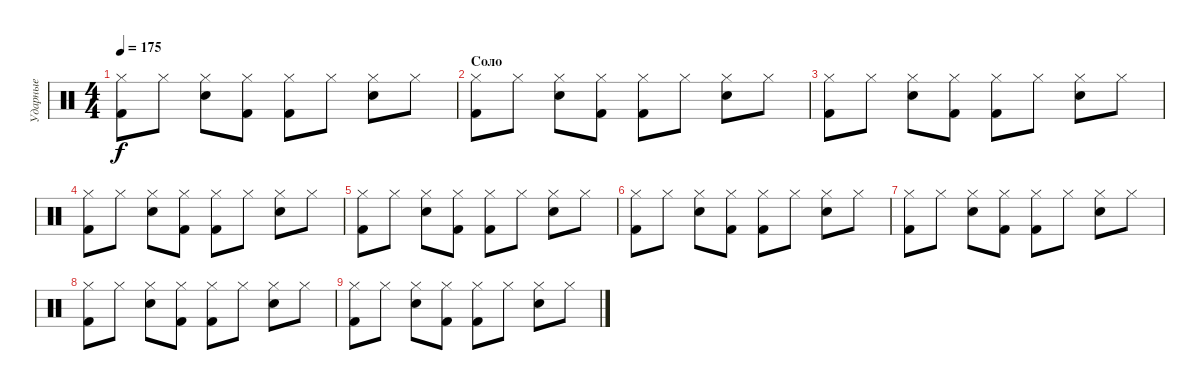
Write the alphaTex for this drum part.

\track ("Ударные" "Ударные") {instrument percussion}
\staff {score}
\articulation defaults
\ts (4 4)
\tempo 175
\clef neutral
\ks c
("Hi-Hat (closed)" "Kick (hit) 2").8{dy f} "Hi-Hat (closed)".8 ("Hi-Hat (closed)" "Snare (hit) 2").8 ("Hi-Hat (closed)" "Kick (hit) 2").8 ("Hi-Hat (closed)" "Kick (hit) 2").8 "Hi-Hat (closed)".8 ("Hi-Hat (closed)" "Snare (hit) 2").8 "Hi-Hat (closed)".8 |
\section ("" "Соло")
("Hi-Hat (closed)" "Kick (hit) 2").8 "Hi-Hat (closed)".8 ("Hi-Hat (closed)" "Snare (hit) 2").8 ("Hi-Hat (closed)" "Kick (hit) 2").8 ("Hi-Hat (closed)" "Kick (hit) 2").8 "Hi-Hat (closed)".8 ("Hi-Hat (closed)" "Snare (hit) 2").8 "Hi-Hat (closed)".8 |
("Hi-Hat (closed)" "Kick (hit) 2").8 "Hi-Hat (closed)".8 ("Hi-Hat (closed)" "Snare (hit) 2").8 ("Hi-Hat (closed)" "Kick (hit) 2").8 ("Hi-Hat (closed)" "Kick (hit) 2").8 "Hi-Hat (closed)".8 ("Hi-Hat (closed)" "Snare (hit) 2").8 "Hi-Hat (closed)".8 |
("Hi-Hat (closed)" "Kick (hit) 2").8 "Hi-Hat (closed)".8 ("Hi-Hat (closed)" "Snare (hit) 2").8 ("Hi-Hat (closed)" "Kick (hit) 2").8 ("Hi-Hat (closed)" "Kick (hit) 2").8 "Hi-Hat (closed)".8 ("Hi-Hat (closed)" "Snare (hit) 2").8 "Hi-Hat (closed)".8 |
("Hi-Hat (closed)" "Kick (hit) 2").8 "Hi-Hat (closed)".8 ("Hi-Hat (closed)" "Snare (hit) 2").8 ("Hi-Hat (closed)" "Kick (hit) 2").8 ("Hi-Hat (closed)" "Kick (hit) 2").8 "Hi-Hat (closed)".8 ("Hi-Hat (closed)" "Snare (hit) 2").8 "Hi-Hat (closed)".8 |
("Hi-Hat (closed)" "Kick (hit) 2").8 "Hi-Hat (closed)".8 ("Hi-Hat (closed)" "Snare (hit) 2").8 ("Hi-Hat (closed)" "Kick (hit) 2").8 ("Hi-Hat (closed)" "Kick (hit) 2").8 "Hi-Hat (closed)".8 ("Hi-Hat (closed)" "Snare (hit) 2").8 "Hi-Hat (closed)".8 |
("Hi-Hat (closed)" "Kick (hit) 2").8 "Hi-Hat (closed)".8 ("Hi-Hat (closed)" "Snare (hit) 2").8 ("Hi-Hat (closed)" "Kick (hit) 2").8 ("Hi-Hat (closed)" "Kick (hit) 2").8 "Hi-Hat (closed)".8 ("Hi-Hat (closed)" "Snare (hit) 2").8 "Hi-Hat (closed)".8 |
("Hi-Hat (closed)" "Kick (hit) 2").8 "Hi-Hat (closed)".8 ("Hi-Hat (closed)" "Snare (hit) 2").8 ("Hi-Hat (closed)" "Kick (hit) 2").8 ("Hi-Hat (closed)" "Kick (hit) 2").8 "Hi-Hat (closed)".8 ("Hi-Hat (closed)" "Snare (hit) 2").8 "Hi-Hat (closed)".8 |
("Hi-Hat (closed)" "Kick (hit) 2").8 "Hi-Hat (closed)".8 ("Hi-Hat (closed)" "Snare (hit) 2").8 ("Hi-Hat (closed)" "Kick (hit) 2").8 ("Hi-Hat (closed)" "Kick (hit) 2").8 "Hi-Hat (closed)".8 ("Hi-Hat (closed)" "Snare (hit) 2").8 "Hi-Hat (closed)".8
